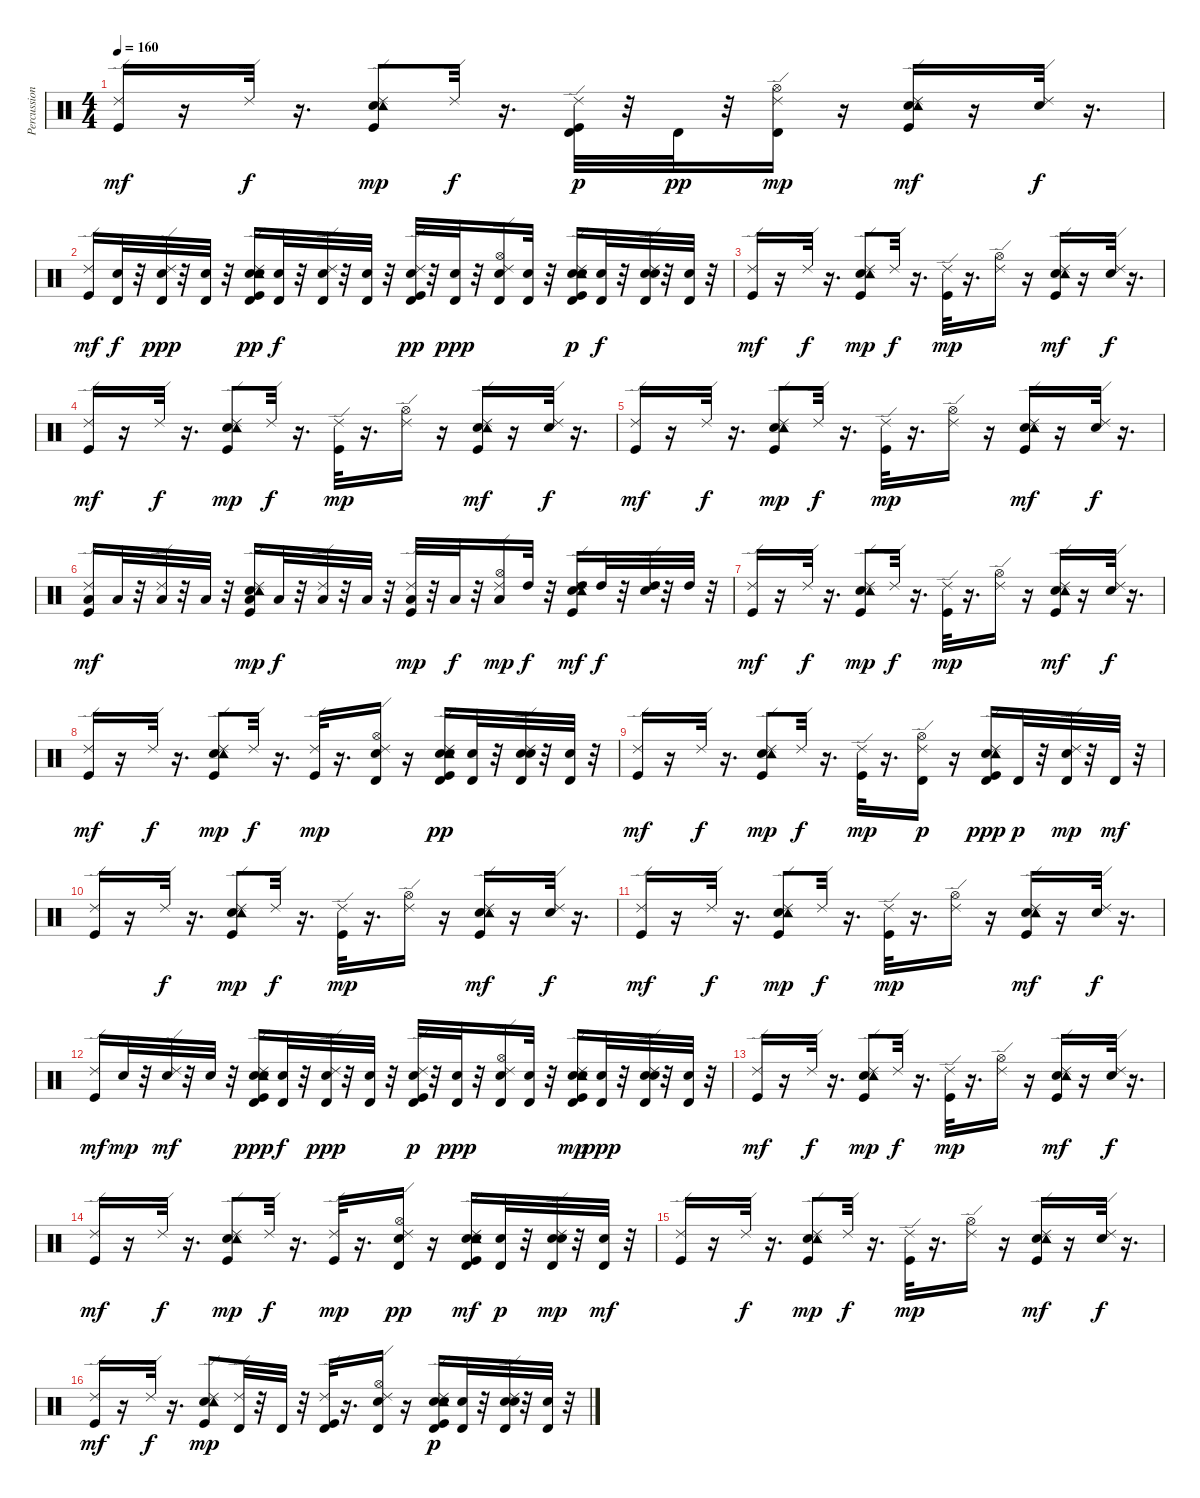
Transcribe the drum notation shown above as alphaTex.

\track ("Percussion" "Percussion") {instrument percussion}
\staff {score}
\articulation defaults
\ts (4 4)
\tempo 160
\clef neutral
\ks c
("Kick (hit)" "Ride (edge) 2").16{dy mf} r.16 "Ride (edge) 2".32{dy f} r.16{d} ("Kick (hit)" "Electric Snare (hit)" "Tambourine (hit)" "Ride (edge) 2").8{dy mp} "Ride (edge) 2".32{dy f} r.16{d} ("Kick (hit)" "Ride (edge) 2" "Timbale high (hit)").32{dy p} r.32 "Timbale high (hit)".32{dy pp} r.32 ("Hi-Hat (open)" "Ride (edge) 2" "Timbale high (hit)").16{dy mp} r.16 ("Kick (hit)" "Electric Snare (hit)" "Tambourine (hit)" "Ride (edge) 2").16{dy mf} r.16 ("Electric Snare (hit)" "Ride (edge) 2").32{dy f} r.16{d} |
("Kick (hit)" "Ride (edge) 2").16{dy mf} ("Snare (hit) 2" "Timbale high (hit)").32{dy f} r.32 ("Snare (hit) 2" "Ride (edge) 2" "Timbale high (hit)").32{dy ppp} r.32 ("Snare (hit) 2" "Timbale high (hit)").32 r.32 ("Kick (hit)" "Snare (hit) 2" "Electric Snare (hit)" "Tambourine (hit)" "Ride (edge) 2" "Timbale high (hit)").16{dy pp} ("Snare (hit) 2" "Timbale high (hit)").32{dy f} r.32 ("Snare (hit) 2" "Ride (edge) 2" "Timbale high (hit)").32 r.32 ("Snare (hit) 2" "Timbale high (hit)").32 r.32 ("Kick (hit)" "Snare (hit) 2" "Ride (edge) 2" "Timbale high (hit)").32{dy pp} r.32 ("Snare (hit) 2" "Timbale high (hit)").32{dy ppp} r.32 ("Snare (hit) 2" "Hi-Hat (open)" "Ride (edge) 2" "Timbale high (hit)").16 ("Snare (hit) 2" "Timbale high (hit)").32 r.32 ("Kick (hit)" "Snare (hit) 2" "Electric Snare (hit)" "Tambourine (hit)" "Ride (edge) 2" "Timbale high (hit)").16{dy p} ("Snare (hit) 2" "Timbale high (hit)").32{dy f} r.32 ("Snare (hit) 2" "Electric Snare (hit)" "Ride (edge) 2" "Timbale high (hit)").32 r.32 ("Snare (hit) 2" "Timbale high (hit)").32 r.32 |
("Kick (hit)" "Ride (edge) 2").16{dy mf} r.16 "Ride (edge) 2".32{dy f} r.16{d} ("Kick (hit)" "Electric Snare (hit)" "Tambourine (hit)" "Ride (edge) 2").8{dy mp} "Ride (edge) 2".32{dy f} r.16{d} ("Kick (hit)" "Ride (edge) 2").32{dy mp} r.16{d} ("Hi-Hat (open)" "Ride (edge) 2").16 r.16 ("Kick (hit)" "Electric Snare (hit)" "Tambourine (hit)" "Ride (edge) 2").16{dy mf} r.16 ("Electric Snare (hit)" "Ride (edge) 2").32{dy f} r.16{d} |
("Kick (hit)" "Ride (edge) 2").16{dy mf} r.16 "Ride (edge) 2".32{dy f} r.16{d} ("Kick (hit)" "Electric Snare (hit)" "Tambourine (hit)" "Ride (edge) 2").8{dy mp} "Ride (edge) 2".32{dy f} r.16{d} ("Kick (hit)" "Ride (edge) 2").32{dy mp} r.16{d} ("Hi-Hat (open)" "Ride (edge) 2").16 r.16 ("Kick (hit)" "Electric Snare (hit)" "Tambourine (hit)" "Ride (edge) 2").16{dy mf} r.16 ("Electric Snare (hit)" "Ride (edge) 2").32{dy f} r.16{d} |
("Kick (hit)" "Ride (edge) 2").16{dy mf} r.16 "Ride (edge) 2".32{dy f} r.16{d} ("Kick (hit)" "Electric Snare (hit)" "Tambourine (hit)" "Ride (edge) 2").8{dy mp} "Ride (edge) 2".32{dy f} r.16{d} ("Kick (hit)" "Ride (edge) 2").32{dy mp} r.16{d} ("Hi-Hat (open)" "Ride (edge) 2").16 r.16 ("Kick (hit)" "Electric Snare (hit)" "Tambourine (hit)" "Ride (edge) 2").16{dy mf} r.16 ("Electric Snare (hit)" "Ride (edge) 2").32{dy f} r.16{d} |
("Kick (hit)" "Low Floor Tom (hit)" "Ride (edge) 2").16{dy mf} "Low Floor Tom (hit)".32 r.32 ("Low Floor Tom (hit)" "Ride (edge) 2").32 r.32 "Low Floor Tom (hit)".32 r.32 ("Kick (hit)" "Electric Snare (hit)" "Low Floor Tom (hit)" "Tambourine (hit)" "Ride (edge) 2").16{dy mp} "Low Floor Tom (hit)".32{dy f} r.32 ("Low Tom (hit)" "Ride (edge) 2").32 r.32 "Low Tom (hit)".32 r.32 ("Kick (hit)" "Low Tom (hit)" "Ride (edge) 2").32{dy mp} r.32 "Low Tom (hit)".32{dy f} r.32 ("Low Tom (hit)" "Hi-Hat (open)" "Ride (edge) 2").16{dy mp} "High Tom (hit)".32{dy f} r.32 ("Kick (hit)" "Electric Snare (hit)" "High Tom (hit)" "Tambourine (hit)" "Ride (edge) 2").16{dy mf} "High Tom (hit)".32{dy f} r.32 ("Electric Snare (hit)" "High Tom (hit)" "Ride (edge) 2").32 r.32 "High Tom (hit)".32 r.32 |
("Kick (hit)" "Ride (edge) 2").16{dy mf} r.16 "Ride (edge) 2".32{dy f} r.16{d} ("Kick (hit)" "Electric Snare (hit)" "Tambourine (hit)" "Ride (edge) 2").8{dy mp} "Ride (edge) 2".32{dy f} r.16{d} ("Kick (hit)" "Ride (edge) 2").32{dy mp} r.16{d} ("Hi-Hat (open)" "Ride (edge) 2").16 r.16 ("Kick (hit)" "Electric Snare (hit)" "Tambourine (hit)" "Ride (edge) 2").16{dy mf} r.16 ("Electric Snare (hit)" "Ride (edge) 2").32{dy f} r.16{d} |
("Kick (hit)" "Ride (edge) 2").16{dy mf} r.16 "Ride (edge) 2".32{dy f} r.16{d} ("Kick (hit)" "Electric Snare (hit)" "Tambourine (hit)" "Ride (edge) 2").8{dy mp} "Ride (edge) 2".32{dy f} r.16{d} ("Kick (hit)" "Ride (edge) 2").32{dy mp} r.16{d} ("Snare (hit) 2" "Hi-Hat (open)" "Ride (edge) 2" "Timbale high (hit)").16 r.16 ("Kick (hit)" "Snare (hit) 2" "Electric Snare (hit)" "Tambourine (hit)" "Ride (edge) 2" "Timbale high (hit)").16{dy pp} ("Snare (hit) 2" "Timbale high (hit)").32 r.32 ("Snare (hit) 2" "Electric Snare (hit)" "Ride (edge) 2" "Timbale high (hit)").32 r.32 ("Snare (hit) 2" "Timbale high (hit)").32 r.32 |
("Kick (hit)" "Ride (edge) 2").16{dy mf} r.16 "Ride (edge) 2".32{dy f} r.16{d} ("Kick (hit)" "Electric Snare (hit)" "Tambourine (hit)" "Ride (edge) 2").8{dy mp} "Ride (edge) 2".32{dy f} r.16{d} ("Kick (hit)" "Ride (edge) 2").32{dy mp} r.16{d} ("Hi-Hat (open)" "Ride (edge) 2" "Timbale high (hit)").16{dy p} r.16 ("Kick (hit)" "Electric Snare (hit)" "Tambourine (hit)" "Ride (edge) 2" "Timbale high (hit)").16{dy ppp} "Timbale high (hit)".32{dy p} r.32 ("Electric Snare (hit)" "Ride (edge) 2" "Timbale high (hit)").32{dy mp} r.32 "Timbale high (hit)".32{dy mf} r.32 |
("Kick (hit)" "Ride (edge) 2").16 r.16 "Ride (edge) 2".32{dy f} r.16{d} ("Kick (hit)" "Electric Snare (hit)" "Tambourine (hit)" "Ride (edge) 2").8{dy mp} "Ride (edge) 2".32{dy f} r.16{d} ("Kick (hit)" "Ride (edge) 2").32{dy mp} r.16{d} ("Hi-Hat (open)" "Ride (edge) 2").16 r.16 ("Kick (hit)" "Electric Snare (hit)" "Tambourine (hit)" "Ride (edge) 2").16{dy mf} r.16 ("Electric Snare (hit)" "Ride (edge) 2").32{dy f} r.16{d} |
("Kick (hit)" "Ride (edge) 2").16{dy mf} r.16 "Ride (edge) 2".32{dy f} r.16{d} ("Kick (hit)" "Electric Snare (hit)" "Tambourine (hit)" "Ride (edge) 2").8{dy mp} "Ride (edge) 2".32{dy f} r.16{d} ("Kick (hit)" "Ride (edge) 2").32{dy mp} r.16{d} ("Hi-Hat (open)" "Ride (edge) 2").16 r.16 ("Kick (hit)" "Electric Snare (hit)" "Tambourine (hit)" "Ride (edge) 2").16{dy mf} r.16 ("Electric Snare (hit)" "Ride (edge) 2").32{dy f} r.16{d} |
("Kick (hit)" "Ride (edge) 2").16{dy mf} "Snare (hit) 2".32{dy mp} r.32 ("Snare (hit) 2" "Ride (edge) 2").32{dy mf} r.32 "Snare (hit) 2".32 r.32 ("Kick (hit)" "Snare (hit) 2" "Electric Snare (hit)" "Tambourine (hit)" "Ride (edge) 2" "Timbale high (hit)").16{dy ppp} ("Snare (hit) 2" "Timbale high (hit)").32{dy f} r.32 ("Snare (hit) 2" "Ride (edge) 2" "Timbale high (hit)").32{dy ppp} r.32 ("Snare (hit) 2" "Timbale high (hit)").32 r.32 ("Kick (hit)" "Snare (hit) 2" "Ride (edge) 2" "Timbale high (hit)").32{dy p} r.32 ("Snare (hit) 2" "Timbale high (hit)").32{dy ppp} r.32 ("Snare (hit) 2" "Hi-Hat (open)" "Ride (edge) 2" "Timbale high (hit)").16 ("Snare (hit) 2" "Timbale high (hit)").32 r.32 ("Kick (hit)" "Snare (hit) 2" "Electric Snare (hit)" "Tambourine (hit)" "Ride (edge) 2" "Timbale high (hit)").16{dy mp} ("Snare (hit) 2" "Timbale high (hit)").32{dy ppp} r.32 ("Snare (hit) 2" "Electric Snare (hit)" "Ride (edge) 2" "Timbale high (hit)").32 r.32 ("Snare (hit) 2" "Timbale high (hit)").32 r.32 |
("Kick (hit)" "Ride (edge) 2").16{dy mf} r.16 "Ride (edge) 2".32{dy f} r.16{d} ("Kick (hit)" "Electric Snare (hit)" "Tambourine (hit)" "Ride (edge) 2").8{dy mp} "Ride (edge) 2".32{dy f} r.16{d} ("Kick (hit)" "Ride (edge) 2").32{dy mp} r.16{d} ("Hi-Hat (open)" "Ride (edge) 2").16 r.16 ("Kick (hit)" "Electric Snare (hit)" "Tambourine (hit)" "Ride (edge) 2").16{dy mf} r.16 ("Electric Snare (hit)" "Ride (edge) 2").32{dy f} r.16{d} |
("Kick (hit)" "Ride (edge) 2").16{dy mf} r.16 "Ride (edge) 2".32{dy f} r.16{d} ("Kick (hit)" "Electric Snare (hit)" "Tambourine (hit)" "Ride (edge) 2").8{dy mp} "Ride (edge) 2".32{dy f} r.16{d} ("Kick (hit)" "Ride (edge) 2").32{dy mp} r.16{d} ("Snare (hit) 2" "Hi-Hat (open)" "Ride (edge) 2" "Timbale high (hit)").16{dy pp} r.16 ("Kick (hit)" "Snare (hit) 2" "Electric Snare (hit)" "Tambourine (hit)" "Ride (edge) 2" "Timbale high (hit)").16{dy mf} ("Snare (hit) 2" "Timbale high (hit)").32{dy p} r.32 ("Snare (hit) 2" "Electric Snare (hit)" "Ride (edge) 2" "Timbale high (hit)").32{dy mp} r.32 ("Snare (hit) 2" "Timbale high (hit)").32{dy mf} r.32 |
("Kick (hit)" "Ride (edge) 2").16 r.16 "Ride (edge) 2".32{dy f} r.16{d} ("Kick (hit)" "Electric Snare (hit)" "Tambourine (hit)" "Ride (edge) 2").8{dy mp} "Ride (edge) 2".32{dy f} r.16{d} ("Kick (hit)" "Ride (edge) 2").32{dy mp} r.16{d} ("Hi-Hat (open)" "Ride (edge) 2").16 r.16 ("Kick (hit)" "Electric Snare (hit)" "Tambourine (hit)" "Ride (edge) 2").16{dy mf} r.16 ("Electric Snare (hit)" "Ride (edge) 2").32{dy f} r.16{d} |
("Kick (hit)" "Ride (edge) 2").16{dy mf} r.16 "Ride (edge) 2".32{dy f} r.16{d} ("Kick (hit)" "Electric Snare (hit)" "Tambourine (hit)" "Ride (edge) 2").8{dy mp} ("Ride (edge) 2" "Timbale high (hit)").32 r.32 "Timbale high (hit)".32 r.32 ("Kick (hit)" "Ride (edge) 2" "Timbale high (hit)").32 r.16{d} ("Snare (hit) 2" "Hi-Hat (open)" "Ride (edge) 2" "Timbale high (hit)").16 r.16 ("Kick (hit)" "Snare (hit) 2" "Electric Snare (hit)" "Tambourine (hit)" "Ride (edge) 2" "Timbale high (hit)").16{dy p} ("Snare (hit) 2" "Timbale high (hit)").32 r.32 ("Snare (hit) 2" "Electric Snare (hit)" "Ride (edge) 2" "Timbale high (hit)").32 r.32 ("Snare (hit) 2" "Timbale high (hit)").32 r.32
